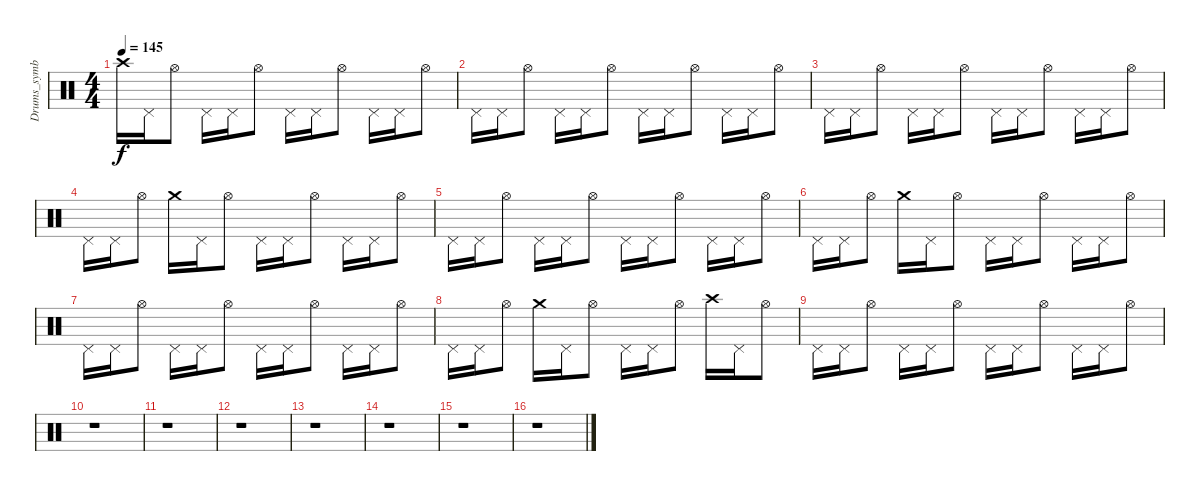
\track ("Drums_symbal" "Drums_symb") {instrument percussion}
\staff {score}
\articulation defaults
\ts (4 4)
\tempo 145
\clef neutral
\ks c "Crash high (hit)".16{dy f} "Pedal Hi-Hat (hit)".16 "Hi-Hat (open)".8 "Pedal Hi-Hat (hit)".16 "Pedal Hi-Hat (hit)".16 "Hi-Hat (open)".8 "Pedal Hi-Hat (hit)".16 "Pedal Hi-Hat (hit)".16 "Hi-Hat (open)".8 "Pedal Hi-Hat (hit)".16 "Pedal Hi-Hat (hit)".16 "Hi-Hat (open)".8
|
"Pedal Hi-Hat (hit)".16 "Pedal Hi-Hat (hit)".16 "Hi-Hat (open)".8 "Pedal Hi-Hat (hit)".16 "Pedal Hi-Hat (hit)".16 "Hi-Hat (open)".8 "Pedal Hi-Hat (hit)".16 "Pedal Hi-Hat (hit)".16 "Hi-Hat (open)".8 "Pedal Hi-Hat (hit)".16 "Pedal Hi-Hat (hit)".16 "Hi-Hat (open)".8 |
"Pedal Hi-Hat (hit)".16 "Pedal Hi-Hat (hit)".16 "Hi-Hat (open)".8 "Pedal Hi-Hat (hit)".16 "Pedal Hi-Hat (hit)".16 "Hi-Hat (open)".8 "Pedal Hi-Hat (hit)".16 "Pedal Hi-Hat (hit)".16 "Hi-Hat (open)".8 "Pedal Hi-Hat (hit)".16 "Pedal Hi-Hat (hit)".16 "Hi-Hat (open)".8 |
"Pedal Hi-Hat (hit)".16 "Pedal Hi-Hat (hit)".16 "Hi-Hat (open)".8 "Crash medium (hit)".16 "Pedal Hi-Hat (hit)".16 "Hi-Hat (open)".8 "Pedal Hi-Hat (hit)".16 "Pedal Hi-Hat (hit)".16 "Hi-Hat (open)".8 "Pedal Hi-Hat (hit)".16 "Pedal Hi-Hat (hit)".16 "Hi-Hat (open)".8 |
"Pedal Hi-Hat (hit)".16 "Pedal Hi-Hat (hit)".16 "Hi-Hat (open)".8 "Pedal Hi-Hat (hit)".16 "Pedal Hi-Hat (hit)".16 "Hi-Hat (open)".8 "Pedal Hi-Hat (hit)".16 "Pedal Hi-Hat (hit)".16 "Hi-Hat (open)".8 "Pedal Hi-Hat (hit)".16 "Pedal Hi-Hat (hit)".16 "Hi-Hat (open)".8 |
"Pedal Hi-Hat (hit)".16 "Pedal Hi-Hat (hit)".16 "Hi-Hat (open)".8 "Crash medium (hit)".16 "Pedal Hi-Hat (hit)".16 "Hi-Hat (open)".8 "Pedal Hi-Hat (hit)".16 "Pedal Hi-Hat (hit)".16 "Hi-Hat (open)".8 "Pedal Hi-Hat (hit)".16 "Pedal Hi-Hat (hit)".16 "Hi-Hat (open)".8 |
"Pedal Hi-Hat (hit)".16 "Pedal Hi-Hat (hit)".16 "Hi-Hat (open)".8 "Pedal Hi-Hat (hit)".16 "Pedal Hi-Hat (hit)".16 "Hi-Hat (open)".8 "Pedal Hi-Hat (hit)".16 "Pedal Hi-Hat (hit)".16 "Hi-Hat (open)".8 "Pedal Hi-Hat (hit)".16 "Pedal Hi-Hat (hit)".16 "Hi-Hat (open)".8 |
"Pedal Hi-Hat (hit)".16 "Pedal Hi-Hat (hit)".16 "Hi-Hat (open)".8 "Crash medium (hit)".16 "Pedal Hi-Hat (hit)".16 "Hi-Hat (open)".8 "Pedal Hi-Hat (hit)".16 "Pedal Hi-Hat (hit)".16 "Hi-Hat (open)".8 "Crash high (hit)".16 "Pedal Hi-Hat (hit)".16 "Hi-Hat (open)".8 |
"Pedal Hi-Hat (hit)".16 "Pedal Hi-Hat (hit)".16 "Hi-Hat (open)".8 "Pedal Hi-Hat (hit)".16 "Pedal Hi-Hat (hit)".16 "Hi-Hat (open)".8 "Pedal Hi-Hat (hit)".16 "Pedal Hi-Hat (hit)".16 "Hi-Hat (open)".8 "Pedal Hi-Hat (hit)".16 "Pedal Hi-Hat (hit)".16 "Hi-Hat (open)".8 |
r.1 |
r.1 |
r.1 |
r.1 |
r.1 |
r.1 |
r.1
